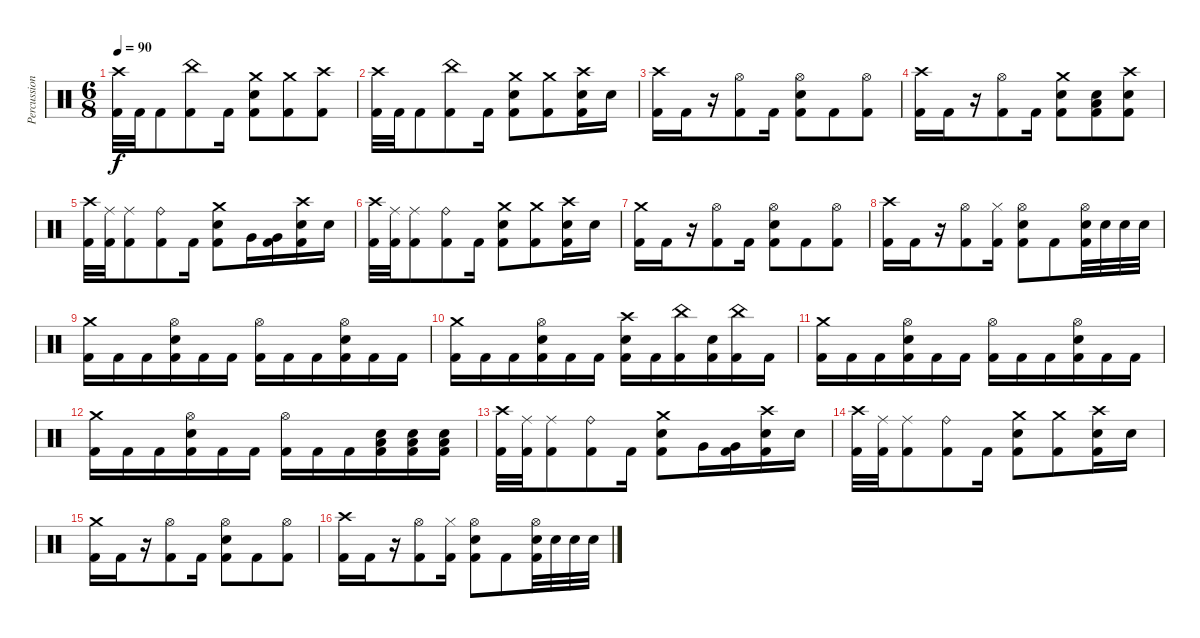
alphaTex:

\track ("Percussion" "Percussion") {instrument percussion}
\staff {score}
\articulation defaults
\ts (6 8)
\tempo 90
\clef neutral
\ks c
("Crash high (hit)" "Kick (hit) 2").32{dy f} "Kick (hit) 2".32 "Kick (hit) 2".8 ("China (hit)" "Kick (hit) 2").8 "Kick (hit) 2".16 ("Crash medium (hit)" "Electric Snare (hit)" "Kick (hit) 2").8 ("Crash medium (hit)" "Kick (hit) 2").8 ("Crash high (hit)" "Kick (hit) 2").8 |
("Crash high (hit)" "Kick (hit) 2").32 "Kick (hit) 2".32 "Kick (hit) 2".8 ("China (hit)" "Kick (hit) 2").8 "Kick (hit) 2".16 ("Crash medium (hit)" "Electric Snare (hit)" "Kick (hit) 2").8 ("Crash medium (hit)" "Kick (hit) 2").8 ("Crash high (hit)" "Electric Snare (hit)" "Kick (hit) 2").16 "Electric Snare (hit)".16 |
("Crash high (hit)" "Kick (hit) 2").16 "Kick (hit) 2".16 r.16 ("Hi-Hat (open)" "Kick (hit) 2").8 "Kick (hit) 2".16 ("Hi-Hat (open)" "Electric Snare (hit)" "Kick (hit) 2").8 "Kick (hit) 2".8 ("Hi-Hat (open)" "Kick (hit) 2").8 |
("Crash high (hit)" "Kick (hit) 2").16 "Kick (hit) 2".16 r.16 ("Hi-Hat (open)" "Kick (hit) 2").8 "Kick (hit) 2".16 ("Crash medium (hit)" "Electric Snare (hit)" "Kick (hit) 2").8 ("Low Floor Tom (hit)" "Electric Snare (hit)" "Kick (hit) 2").8 ("Crash high (hit)" "Electric Snare (hit)" "Kick (hit) 2").8 |
("Crash high (hit)" "Kick (hit) 2").32 ("Ride (middle)" "Kick (hit) 2").32 ("Ride (middle)" "Kick (hit) 2").8 ("Ride (bell)" "Kick (hit) 2").8 "Kick (hit) 2".16 ("Crash medium (hit)" "Electric Snare (hit)" "Kick (hit) 2").8 "Very Low Tom (hit)".16 ("Very Low Tom (hit)" "Kick (hit) 2").16 ("Crash high (hit)" "Electric Snare (hit)" "Kick (hit) 2").16 "Electric Snare (hit)".16 |
("Crash high (hit)" "Kick (hit) 2").32 ("Ride (middle)" "Kick (hit) 2").32 ("Ride (middle)" "Kick (hit) 2").8 ("Ride (bell)" "Kick (hit) 2").8 "Kick (hit) 2".16 ("Crash medium (hit)" "Electric Snare (hit)" "Kick (hit) 2").8 ("Crash medium (hit)" "Kick (hit) 2").8 ("Crash high (hit)" "Electric Snare (hit)" "Kick (hit) 2").16 "Electric Snare (hit)".16 |
("Crash medium (hit)" "Kick (hit) 2").16 "Kick (hit) 2".16 r.16 ("Hi-Hat (open)" "Kick (hit) 2").8 "Kick (hit) 2".16 ("Hi-Hat (open)" "Electric Snare (hit)" "Kick (hit) 2").8 "Kick (hit) 2".8 ("Hi-Hat (open)" "Kick (hit) 2").8 |
("Crash high (hit)" "Kick (hit) 2").16 "Kick (hit) 2".16 r.16 ("Hi-Hat (open)" "Kick (hit) 2").8 ("Hi-Hat (closed)" "Kick (hit) 2").16 ("Hi-Hat (open)" "Electric Snare (hit)" "Kick (hit) 2").8 "Kick (hit) 2".8 ("Hi-Hat (open)" "Electric Snare (hit)" "Kick (hit) 2").32 "Electric Snare (hit)".32 "Electric Snare (hit)".32 "Electric Snare (hit)".32 |
("Crash medium (hit)" "Kick (hit) 2").16 "Kick (hit) 2".16 "Kick (hit) 2".16 ("Hi-Hat (open)" "Electric Snare (hit)" "Kick (hit) 2").16 "Kick (hit) 2".16 "Kick (hit) 2".16 ("Hi-Hat (open)" "Kick (hit) 2").16 "Kick (hit) 2".16 "Kick (hit) 2".16 ("Hi-Hat (open)" "Electric Snare (hit)" "Kick (hit) 2").16 "Kick (hit) 2".16 "Kick (hit) 2".16 |
("Crash medium (hit)" "Kick (hit) 2").16 "Kick (hit) 2".16 "Kick (hit) 2".16 ("Hi-Hat (open)" "Electric Snare (hit)" "Kick (hit) 2").16 "Kick (hit) 2".16 "Kick (hit) 2".16 ("Crash high (hit)" "Electric Snare (hit)" "Kick (hit) 2").16 "Kick (hit) 2".16 ("China (hit)" "Kick (hit) 2").16 ("Electric Snare (hit)" "Kick (hit) 2").16 ("China (hit)" "Kick (hit) 2").16 "Kick (hit) 2".16 |
("Crash medium (hit)" "Kick (hit) 2").16 "Kick (hit) 2".16 "Kick (hit) 2".16 ("Hi-Hat (open)" "Electric Snare (hit)" "Kick (hit) 2").16 "Kick (hit) 2".16 "Kick (hit) 2".16 ("Hi-Hat (open)" "Kick (hit) 2").16 "Kick (hit) 2".16 "Kick (hit) 2".16 ("Hi-Hat (open)" "Electric Snare (hit)" "Kick (hit) 2").16 "Kick (hit) 2".16 "Kick (hit) 2".16 |
("Crash medium (hit)" "Kick (hit) 2").16 "Kick (hit) 2".16 "Kick (hit) 2".16 ("Hi-Hat (open)" "Electric Snare (hit)" "Kick (hit) 2").16 "Kick (hit) 2".16 "Kick (hit) 2".16 ("Hi-Hat (open)" "Kick (hit) 2").16 "Kick (hit) 2".16 "Kick (hit) 2".16 ("Low Floor Tom (hit)" "Electric Snare (hit)" "Kick (hit) 2").16 ("Low Floor Tom (hit)" "Electric Snare (hit)" "Kick (hit) 2").16 ("Low Floor Tom (hit)" "Electric Snare (hit)" "Kick (hit) 2").16 |
("Crash high (hit)" "Kick (hit) 2").32 ("Ride (middle)" "Kick (hit) 2").32 ("Ride (middle)" "Kick (hit) 2").8 ("Ride (bell)" "Kick (hit) 2").8 "Kick (hit) 2".16 ("Crash medium (hit)" "Electric Snare (hit)" "Kick (hit) 2").8 "Very Low Tom (hit)".16 ("Very Low Tom (hit)" "Kick (hit) 2").16 ("Crash high (hit)" "Electric Snare (hit)" "Kick (hit) 2").16 "Electric Snare (hit)".16 |
("Crash high (hit)" "Kick (hit) 2").32 ("Ride (middle)" "Kick (hit) 2").32 ("Ride (middle)" "Kick (hit) 2").8 ("Ride (bell)" "Kick (hit) 2").8 "Kick (hit) 2".16 ("Crash medium (hit)" "Electric Snare (hit)" "Kick (hit) 2").8 ("Crash medium (hit)" "Kick (hit) 2").8 ("Crash high (hit)" "Electric Snare (hit)" "Kick (hit) 2").16 "Electric Snare (hit)".16 |
("Crash medium (hit)" "Kick (hit) 2").16 "Kick (hit) 2".16 r.16 ("Hi-Hat (open)" "Kick (hit) 2").8 "Kick (hit) 2".16 ("Hi-Hat (open)" "Electric Snare (hit)" "Kick (hit) 2").8 "Kick (hit) 2".8 ("Hi-Hat (open)" "Kick (hit) 2").8 |
("Crash high (hit)" "Kick (hit) 2").16 "Kick (hit) 2".16 r.16 ("Hi-Hat (open)" "Kick (hit) 2").8 ("Hi-Hat (closed)" "Kick (hit) 2").16 ("Hi-Hat (open)" "Electric Snare (hit)" "Kick (hit) 2").8 "Kick (hit) 2".8 ("Hi-Hat (open)" "Electric Snare (hit)" "Kick (hit) 2").32 "Electric Snare (hit)".32 "Electric Snare (hit)".32 "Electric Snare (hit)".32
